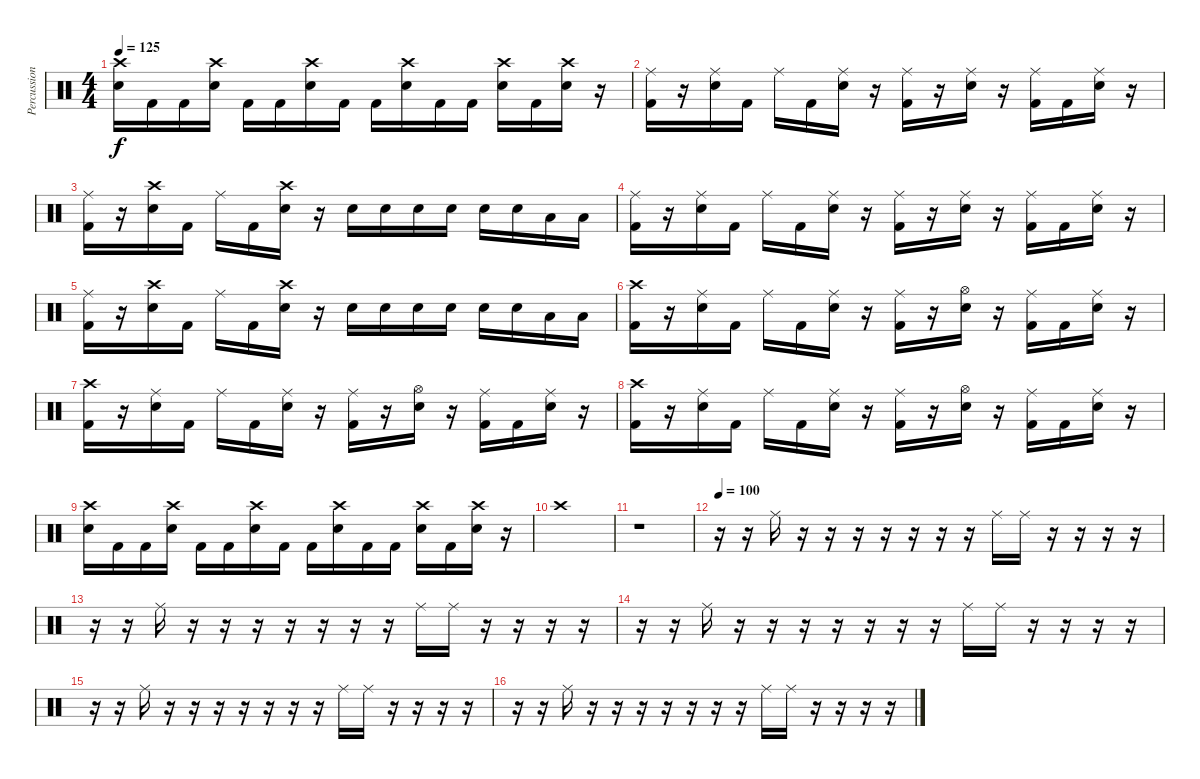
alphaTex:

\track ("Percussion" "Percussion") {instrument percussion}
\staff {score}
\articulation defaults
\ts (4 4)
\tempo 125
\clef neutral
\ks c
("Snare (hit) 2" "Crash high (hit)").16{dy f} "Kick (hit) 2".16 "Kick (hit) 2".16 ("Snare (hit) 2" "Crash high (hit)").16 "Kick (hit) 2".16 "Kick (hit) 2".16 ("Snare (hit) 2" "Crash high (hit)").16 "Kick (hit) 2".16 "Kick (hit) 2".16 ("Snare (hit) 2" "Crash high (hit)").16 "Kick (hit) 2".16 "Kick (hit) 2".16 ("Snare (hit) 2" "Crash high (hit)").16 "Kick (hit) 2".16 ("Snare (hit) 2" "Crash high (hit)").16 r.16 |
("Kick (hit) 2" "Ride (middle)").16 r.16 ("Snare (hit) 2" "Ride (middle)").16 "Kick (hit) 2".16 "Ride (middle)".16 "Kick (hit) 2".16 ("Snare (hit) 2" "Ride (middle)").16 r.16 ("Kick (hit) 2" "Ride (middle)").16 r.16 ("Snare (hit) 2" "Ride (middle)").16 r.16 ("Kick (hit) 2" "Ride (middle)").16 "Kick (hit) 2".16 ("Snare (hit) 2" "Ride (middle)").16 r.16 |
("Kick (hit) 2" "Ride (middle)").16 r.16 ("Snare (hit) 2" "Crash high (hit)").16 "Kick (hit) 2".16 "Ride (middle)".16 "Kick (hit) 2".16 ("Snare (hit) 2" "Crash high (hit)").16 r.16 "Snare (hit) 2".16 "Snare (hit) 2".16 "Snare (hit) 2".16 "Snare (hit) 2".16 "Snare (hit) 2".16 "Snare (hit) 2".16 "Low Tom (hit)".16 "Low Tom (hit)".16 |
("Kick (hit) 2" "Ride (middle)").16 r.16 ("Snare (hit) 2" "Ride (middle)").16 "Kick (hit) 2".16 "Ride (middle)".16 "Kick (hit) 2".16 ("Snare (hit) 2" "Ride (middle)").16 r.16 ("Kick (hit) 2" "Ride (middle)").16 r.16 ("Snare (hit) 2" "Ride (middle)").16 r.16 ("Kick (hit) 2" "Ride (middle)").16 "Kick (hit) 2".16 ("Snare (hit) 2" "Ride (middle)").16 r.16 |
("Kick (hit) 2" "Ride (middle)").16 r.16 ("Snare (hit) 2" "Crash high (hit)").16 "Kick (hit) 2".16 "Ride (middle)".16 "Kick (hit) 2".16 ("Snare (hit) 2" "Crash high (hit)").16 r.16 "Snare (hit) 2".16 "Snare (hit) 2".16 "Snare (hit) 2".16 "Snare (hit) 2".16 "Snare (hit) 2".16 "Snare (hit) 2".16 "Low Tom (hit)".16 "Low Tom (hit)".16 |
("Kick (hit) 2" "Crash high (hit)").16 r.16 ("Snare (hit) 2" "Ride (middle)").16 "Kick (hit) 2".16 "Ride (middle)".16 "Kick (hit) 2".16 ("Snare (hit) 2" "Ride (middle)").16 r.16 ("Kick (hit) 2" "Ride (middle)").16 r.16 ("Snare (hit) 2" "Hi-Hat (open)").16 r.16 ("Kick (hit) 2" "Ride (middle)").16 "Kick (hit) 2".16 ("Snare (hit) 2" "Ride (middle)").16 r.16 |
("Kick (hit) 2" "Crash high (hit)").16 r.16 ("Snare (hit) 2" "Ride (middle)").16 "Kick (hit) 2".16 "Ride (middle)".16 "Kick (hit) 2".16 ("Snare (hit) 2" "Ride (middle)").16 r.16 ("Kick (hit) 2" "Ride (middle)").16 r.16 ("Snare (hit) 2" "Hi-Hat (open)").16 r.16 ("Kick (hit) 2" "Ride (middle)").16 "Kick (hit) 2".16 ("Snare (hit) 2" "Ride (middle)").16 r.16 |
("Kick (hit) 2" "Crash high (hit)").16 r.16 ("Snare (hit) 2" "Ride (middle)").16 "Kick (hit) 2".16 "Ride (middle)".16 "Kick (hit) 2".16 ("Snare (hit) 2" "Ride (middle)").16 r.16 ("Kick (hit) 2" "Ride (middle)").16 r.16 ("Snare (hit) 2" "Hi-Hat (open)").16 r.16 ("Kick (hit) 2" "Ride (middle)").16 "Kick (hit) 2".16 ("Snare (hit) 2" "Ride (middle)").16 r.16 |
("Snare (hit) 2" "Crash high (hit)").16 "Kick (hit) 2".16 "Kick (hit) 2".16 ("Snare (hit) 2" "Crash high (hit)").16 "Kick (hit) 2".16 "Kick (hit) 2".16 ("Snare (hit) 2" "Crash high (hit)").16 "Kick (hit) 2".16 "Kick (hit) 2".16 ("Snare (hit) 2" "Crash high (hit)").16 "Kick (hit) 2".16 "Kick (hit) 2".16 ("Snare (hit) 2" "Crash high (hit)").16 "Kick (hit) 2".16 ("Snare (hit) 2" "Crash high (hit)").16 r.16 |
"Crash high (hit)".1 |
r.1 |
\tempo 100
r.16 r.16 "Ride (middle)".16 r.16 r.16 r.16 r.16 r.16 r.16 r.16 "Ride (middle)".16 "Ride (middle)".16 r.16 r.16 r.16 r.16 |
r.16 r.16 "Ride (middle)".16 r.16 r.16 r.16 r.16 r.16 r.16 r.16 "Ride (middle)".16 "Ride (middle)".16 r.16 r.16 r.16 r.16 |
r.16 r.16 "Ride (middle)".16 r.16 r.16 r.16 r.16 r.16 r.16 r.16 "Ride (middle)".16 "Ride (middle)".16 r.16 r.16 r.16 r.16 |
r.16 r.16 "Ride (middle)".16 r.16 r.16 r.16 r.16 r.16 r.16 r.16 "Ride (middle)".16 "Ride (middle)".16 r.16 r.16 r.16 r.16 |
r.16 r.16 "Ride (middle)".16 r.16 r.16 r.16 r.16 r.16 r.16 r.16 "Ride (middle)".16 "Ride (middle)".16 r.16 r.16 r.16 r.16
